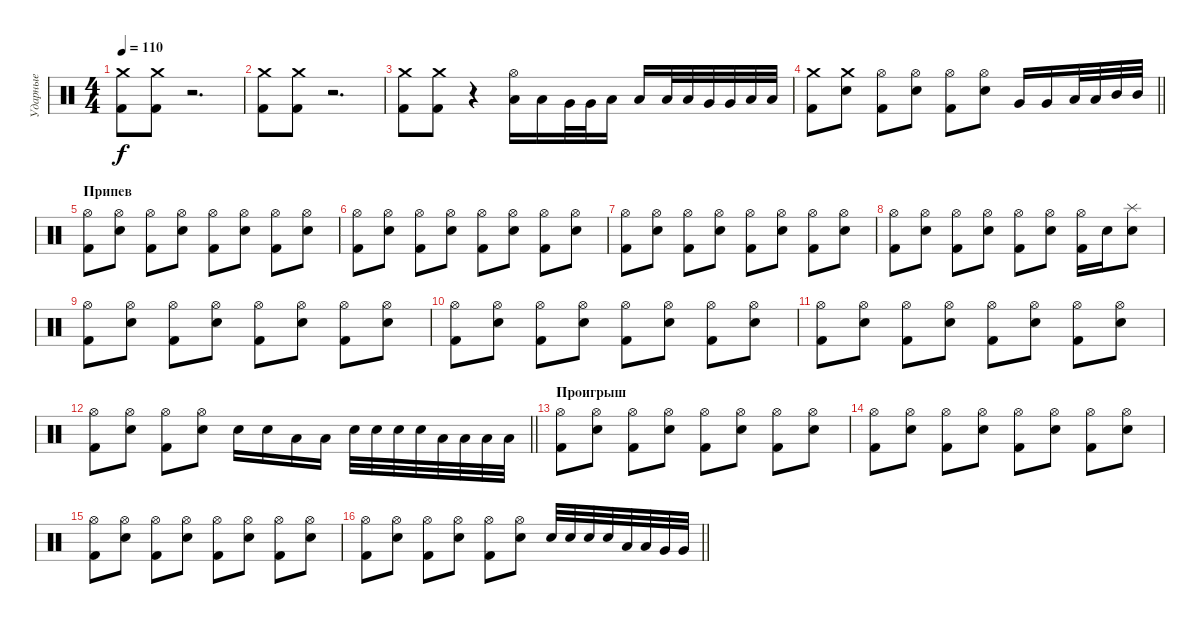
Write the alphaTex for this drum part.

\track ("Ударные" "Ударные") {instrument percussion}
\staff {score}
\articulation defaults
\ts (4 4)
\tempo 110
\clef neutral
\ks c
("Crash medium (hit)" "Kick (hit) 2").8{dy f} ("Crash medium (hit)" "Kick (hit) 2").8 r.2{d} |
("Crash medium (hit)" "Kick (hit) 2").8 ("Crash medium (hit)" "Kick (hit) 2").8 r.2{d} |
("Crash medium (hit)" "Kick (hit) 2").8 ("Crash medium (hit)" "Kick (hit) 2").8 r.4 ("Hi-Hat (open)" "Low Tom (hit)").16 "Low Tom (hit)".16 "Very Low Tom (hit)".32 "Very Low Tom (hit)".32 "Low Tom (hit)".16 "Low Tom (hit)".16 "Low Tom (hit)".32 "Low Tom (hit)".32 "Very Low Tom (hit)".32 "Very Low Tom (hit)".32 "Low Tom (hit)".32 "Low Tom (hit)".32 |
\barLineRight lightlight
("Crash medium (hit)" "Kick (hit) 2").8 ("Crash medium (hit)" "Snare (hit) 2").8 ("Hi-Hat (open)" "Kick (hit) 2").8 ("Hi-Hat (open)" "Snare (hit) 2").8 ("Hi-Hat (open)" "Kick (hit) 2").8 ("Hi-Hat (open)" "Snare (hit) 2").8 "Very Low Tom (hit)".16 "Very Low Tom (hit)".16 "Low Tom (hit)".32 "Low Tom (hit)".32 "Mid Tom (hit)".32 "Mid Tom (hit)".32 |
\section ("" "Припев")
("Hi-Hat (open)" "Kick (hit) 2").8 ("Hi-Hat (open)" "Snare (hit) 2").8 ("Hi-Hat (open)" "Kick (hit) 2").8 ("Hi-Hat (open)" "Snare (hit) 2").8 ("Hi-Hat (open)" "Kick (hit) 2").8 ("Hi-Hat (open)" "Snare (hit) 2").8 ("Hi-Hat (open)" "Kick (hit) 2").8 ("Hi-Hat (open)" "Snare (hit) 2").8 |
("Hi-Hat (open)" "Kick (hit) 2").8 ("Hi-Hat (open)" "Snare (hit) 2").8 ("Hi-Hat (open)" "Kick (hit) 2").8 ("Hi-Hat (open)" "Snare (hit) 2").8 ("Hi-Hat (open)" "Kick (hit) 2").8 ("Hi-Hat (open)" "Snare (hit) 2").8 ("Hi-Hat (open)" "Kick (hit) 2").8 ("Hi-Hat (open)" "Snare (hit) 2").8 |
("Hi-Hat (open)" "Kick (hit) 2").8 ("Hi-Hat (open)" "Snare (hit) 2").8 ("Hi-Hat (open)" "Kick (hit) 2").8 ("Hi-Hat (open)" "Snare (hit) 2").8 ("Hi-Hat (open)" "Kick (hit) 2").8 ("Hi-Hat (open)" "Snare (hit) 2").8 ("Hi-Hat (open)" "Kick (hit) 2").8 ("Hi-Hat (open)" "Snare (hit) 2").8 |
("Hi-Hat (open)" "Kick (hit) 2").8 ("Hi-Hat (open)" "Snare (hit) 2").8 ("Hi-Hat (open)" "Kick (hit) 2").8 ("Hi-Hat (open)" "Snare (hit) 2").8 ("Hi-Hat (open)" "Kick (hit) 2").8 ("Hi-Hat (open)" "Snare (hit) 2").8 ("Hi-Hat (open)" "Kick (hit) 2").16 "Snare (hit) 2".16 ("Splash (hit)" "Snare (hit) 2").8 |
("Hi-Hat (open)" "Kick (hit) 2").8 ("Hi-Hat (open)" "Snare (hit) 2").8 ("Hi-Hat (open)" "Kick (hit) 2").8 ("Hi-Hat (open)" "Snare (hit) 2").8 ("Hi-Hat (open)" "Kick (hit) 2").8 ("Hi-Hat (open)" "Snare (hit) 2").8 ("Hi-Hat (open)" "Kick (hit) 2").8 ("Hi-Hat (open)" "Snare (hit) 2").8 |
("Hi-Hat (open)" "Kick (hit) 2").8 ("Hi-Hat (open)" "Snare (hit) 2").8 ("Hi-Hat (open)" "Kick (hit) 2").8 ("Hi-Hat (open)" "Snare (hit) 2").8 ("Hi-Hat (open)" "Kick (hit) 2").8 ("Hi-Hat (open)" "Snare (hit) 2").8 ("Hi-Hat (open)" "Kick (hit) 2").8 ("Hi-Hat (open)" "Snare (hit) 2").8 |
("Hi-Hat (open)" "Kick (hit) 2").8 ("Hi-Hat (open)" "Snare (hit) 2").8 ("Hi-Hat (open)" "Kick (hit) 2").8 ("Hi-Hat (open)" "Snare (hit) 2").8 ("Hi-Hat (open)" "Kick (hit) 2").8 ("Hi-Hat (open)" "Snare (hit) 2").8 ("Hi-Hat (open)" "Kick (hit) 2").8 ("Hi-Hat (open)" "Snare (hit) 2").8 |
\barLineRight lightlight
("Hi-Hat (open)" "Kick (hit) 2").8 ("Hi-Hat (open)" "Snare (hit) 2").8 ("Hi-Hat (open)" "Kick (hit) 2").8 ("Hi-Hat (open)" "Snare (hit) 2").8 "Snare (hit) 2".16 "Snare (hit) 2".16 "Low Tom (hit)".16 "Low Tom (hit)".16 "Snare (hit) 2".32 "Snare (hit) 2".32 "Snare (hit) 2".32 "Snare (hit) 2".32 "Low Tom (hit)".32 "Low Tom (hit)".32 "Low Tom (hit)".32 "Low Tom (hit)".32 |
\section ("" "Проигрыш")
("Hi-Hat (open)" "Kick (hit) 2").8 ("Hi-Hat (open)" "Snare (hit) 2").8 ("Hi-Hat (open)" "Kick (hit) 2").8 ("Hi-Hat (open)" "Snare (hit) 2").8 ("Hi-Hat (open)" "Kick (hit) 2").8 ("Hi-Hat (open)" "Snare (hit) 2").8 ("Hi-Hat (open)" "Kick (hit) 2").8 ("Hi-Hat (open)" "Snare (hit) 2").8 |
("Hi-Hat (open)" "Kick (hit) 2").8 ("Hi-Hat (open)" "Snare (hit) 2").8 ("Hi-Hat (open)" "Kick (hit) 2").8 ("Hi-Hat (open)" "Snare (hit) 2").8 ("Hi-Hat (open)" "Kick (hit) 2").8 ("Hi-Hat (open)" "Snare (hit) 2").8 ("Hi-Hat (open)" "Kick (hit) 2").8 ("Hi-Hat (open)" "Snare (hit) 2").8 |
("Hi-Hat (open)" "Kick (hit) 2").8 ("Hi-Hat (open)" "Snare (hit) 2").8 ("Hi-Hat (open)" "Kick (hit) 2").8 ("Hi-Hat (open)" "Snare (hit) 2").8 ("Hi-Hat (open)" "Kick (hit) 2").8 ("Hi-Hat (open)" "Snare (hit) 2").8 ("Hi-Hat (open)" "Kick (hit) 2").8 ("Hi-Hat (open)" "Snare (hit) 2").8 |
\barLineRight lightlight
("Hi-Hat (open)" "Kick (hit) 2").8 ("Hi-Hat (open)" "Snare (hit) 2").8 ("Hi-Hat (open)" "Kick (hit) 2").8 ("Hi-Hat (open)" "Snare (hit) 2").8 ("Hi-Hat (open)" "Kick (hit) 2").8 ("Hi-Hat (open)" "Snare (hit) 2").8 "Snare (hit) 2".32 "Snare (hit) 2".32 "Snare (hit) 2".32 "Snare (hit) 2".32 "Low Tom (hit)".32 "Low Tom (hit)".32 "Very Low Tom (hit)".32 "Very Low Tom (hit)".32
